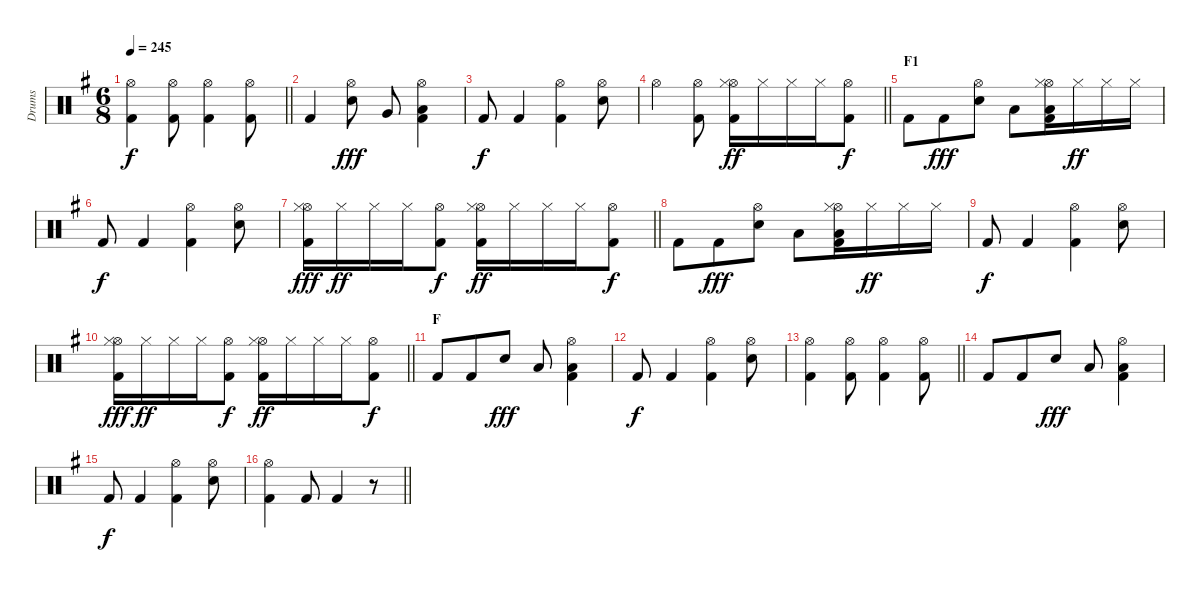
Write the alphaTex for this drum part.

\track ("Drums" "Drums") {instrument percussion}
\staff {score}
\articulation defaults
\ts (6 8)
\tempo 245
\clef neutral
\barLineRight lightlight
\ks eminor
("Hi-Hat (open)" "Kick (hit) 2").4{dy f} ("Hi-Hat (open)" "Kick (hit) 2").8 ("Hi-Hat (open)" "Kick (hit) 2").4 ("Hi-Hat (open)" "Kick (hit) 2").8 |
\section ("" "")
"Kick (hit) 2".4 ("Hi-Hat (open)" "Electric Snare (hit)").8{dy fff} "Very Low Tom (hit)".8 ("Hi-Hat (open)" "Low Floor Tom (hit)" "Kick (hit) 2").4 |
"Kick (hit) 2".8{dy f} "Kick (hit) 2".4 ("Hi-Hat (open)" "Kick (hit) 2").4 ("Hi-Hat (open)" "Electric Snare (hit)").8 |
\barLineRight lightlight "Hi-Hat (open)".4
("Hi-Hat (open)" "Kick (hit) 2").8 ("Hi-Hat (open)" "Hi-Hat (closed)" "Kick (hit) 2").16{dy ff} "Hi-Hat (closed)".16 "Hi-Hat (closed)".16 "Hi-Hat (closed)".16 ("Hi-Hat (open)" "Kick (hit) 2").8{dy f} |
\section ("" "F1")
"Kick (hit) 2".8 "Kick (hit) 2".8{dy fff} ("Hi-Hat (open)" "Electric Snare (hit)").8 "Low Tom (hit)".8 ("Hi-Hat (open)" "Hi-Hat (closed)" "Low Floor Tom (hit)" "Kick (hit) 2").16 "Hi-Hat (closed)".16{dy ff} "Hi-Hat (closed)".16 "Hi-Hat (closed)".16 |
"Kick (hit) 2".8{dy f} "Kick (hit) 2".4 ("Hi-Hat (open)" "Kick (hit) 2").4 ("Hi-Hat (open)" "Electric Snare (hit)").8 |
\barLineRight lightlight
("Hi-Hat (open)" "Hi-Hat (closed)" "Kick (hit) 2").16{dy fff} "Hi-Hat (closed)".16{dy ff} "Hi-Hat (closed)".16 "Hi-Hat (closed)".16 ("Hi-Hat (open)" "Kick (hit) 2").8{dy f} ("Hi-Hat (open)" "Hi-Hat (closed)" "Kick (hit) 2").16{dy ff} "Hi-Hat (closed)".16 "Hi-Hat (closed)".16 "Hi-Hat (closed)".16 ("Hi-Hat (open)" "Kick (hit) 2").8{dy f} |
\section ("" "")
"Kick (hit) 2".8 "Kick (hit) 2".8{dy fff} ("Hi-Hat (open)" "Electric Snare (hit)").8 "Low Tom (hit)".8 ("Hi-Hat (open)" "Hi-Hat (closed)" "Low Floor Tom (hit)" "Kick (hit) 2").16 "Hi-Hat (closed)".16{dy ff} "Hi-Hat (closed)".16 "Hi-Hat (closed)".16 |
"Kick (hit) 2".8{dy f} "Kick (hit) 2".4 ("Hi-Hat (open)" "Kick (hit) 2").4 ("Hi-Hat (open)" "Electric Snare (hit)").8 |
\barLineRight lightlight
("Hi-Hat (open)" "Hi-Hat (closed)" "Kick (hit) 2").16{dy fff} "Hi-Hat (closed)".16{dy ff} "Hi-Hat (closed)".16 "Hi-Hat (closed)".16 ("Hi-Hat (open)" "Kick (hit) 2").8{dy f} ("Hi-Hat (open)" "Hi-Hat (closed)" "Kick (hit) 2").16{dy ff} "Hi-Hat (closed)".16 "Hi-Hat (closed)".16 "Hi-Hat (closed)".16 ("Hi-Hat (open)" "Kick (hit) 2").8{dy f} |
\section ("" "F")
"Kick (hit) 2".8 "Kick (hit) 2".8 "Electric Snare (hit)".8{dy fff} "Low Tom (hit)".8 ("Hi-Hat (open)" "Low Floor Tom (hit)" "Kick (hit) 2").4 |
"Kick (hit) 2".8{dy f} "Kick (hit) 2".4 ("Hi-Hat (open)" "Kick (hit) 2").4 ("Hi-Hat (open)" "Electric Snare (hit)").8 |
\barLineRight lightlight
("Hi-Hat (open)" "Kick (hit) 2").4 ("Hi-Hat (open)" "Kick (hit) 2").8 ("Hi-Hat (open)" "Kick (hit) 2").4 ("Hi-Hat (open)" "Kick (hit) 2").8 |
\section ("" "")
"Kick (hit) 2".8 "Kick (hit) 2".8 "Electric Snare (hit)".8{dy fff} "Low Tom (hit)".8 ("Hi-Hat (open)" "Low Floor Tom (hit)" "Kick (hit) 2").4 |
"Kick (hit) 2".8{dy f} "Kick (hit) 2".4 ("Hi-Hat (open)" "Kick (hit) 2").4 ("Hi-Hat (open)" "Electric Snare (hit)").8 |
\barLineRight lightlight
("Hi-Hat (open)" "Kick (hit) 2").4 "Kick (hit) 2".8 "Kick (hit) 2".4 r.8
